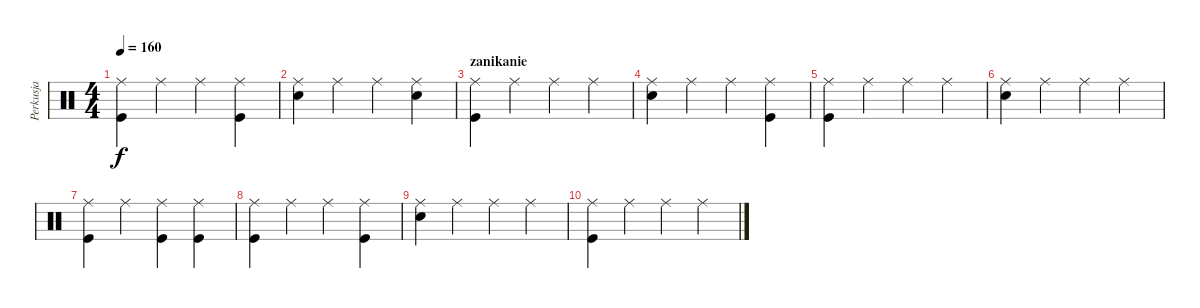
\track ("Perkusja" "Perkusja") {instrument percussion}
\staff {score}
\articulation defaults
\ts (4 4)
\tempo 160
\clef neutral
\ks c
("Kick (hit)" "Ride (middle)").4{dy f} "Ride (middle)".4 "Ride (middle)".4 ("Kick (hit)" "Ride (middle)").4 |
("Snare (hit) 2" "Ride (middle)").4 "Ride (middle)".4 "Ride (middle)".4 ("Snare (hit) 2" "Ride (middle)").4 |
\section ("" "zanikanie")
("Kick (hit)" "Ride (middle)").4 "Ride (middle)".4 "Ride (middle)".4 "Ride (middle)".4 |
("Snare (hit) 2" "Ride (middle)").4 "Ride (middle)".4 "Ride (middle)".4 ("Kick (hit)" "Ride (middle)").4 |
("Kick (hit)" "Ride (middle)").4 "Ride (middle)".4 "Ride (middle)".4 "Ride (middle)".4 |
("Snare (hit) 2" "Ride (middle)").4 "Ride (middle)".4 "Ride (middle)".4 "Ride (middle)".4 |
("Kick (hit)" "Ride (middle)").4 "Ride (middle)".4 ("Kick (hit)" "Ride (middle)").4 ("Kick (hit)" "Ride (middle)").4 |
("Kick (hit)" "Ride (middle)").4 "Ride (middle)".4 "Ride (middle)".4 ("Kick (hit)" "Ride (middle)").4 |
("Snare (hit) 2" "Ride (middle)").4 "Ride (middle)".4 "Ride (middle)".4 "Ride (middle)".4 |
("Kick (hit)" "Ride (middle)").4 "Ride (middle)".4 "Ride (middle)".4 "Ride (middle)".4
